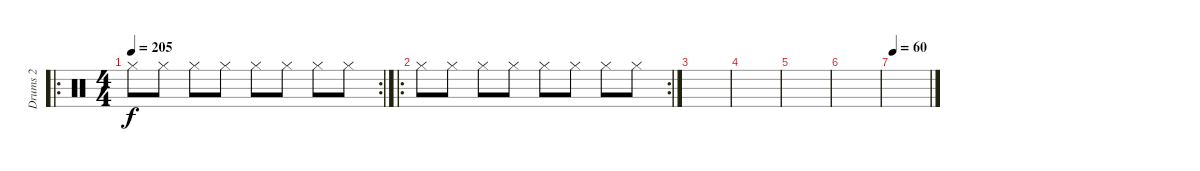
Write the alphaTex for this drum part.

\track ("Drums 2" "Drums 2") {instrument percussion}
\staff {score}
\articulation defaults
\ro
\rc 2
\ts (4 4)
\tempo 205
\clef neutral
\ks c "Hi-Hat (closed)".8{dy f} "Hi-Hat (closed)".8 "Hi-Hat (closed)".8 "Hi-Hat (closed)".8 "Hi-Hat (closed)".8 "Hi-Hat (closed)".8 "Hi-Hat (closed)".8 "Hi-Hat (closed)".8
|
\ro
\rc 2 "Hi-Hat (closed)".8 "Hi-Hat (closed)".8 "Hi-Hat (closed)".8 "Hi-Hat (closed)".8 "Hi-Hat (closed)".8 "Hi-Hat (closed)".8 "Hi-Hat (closed)".8 "Hi-Hat (closed)".8
|
|
|
|
|
\tempo 60
